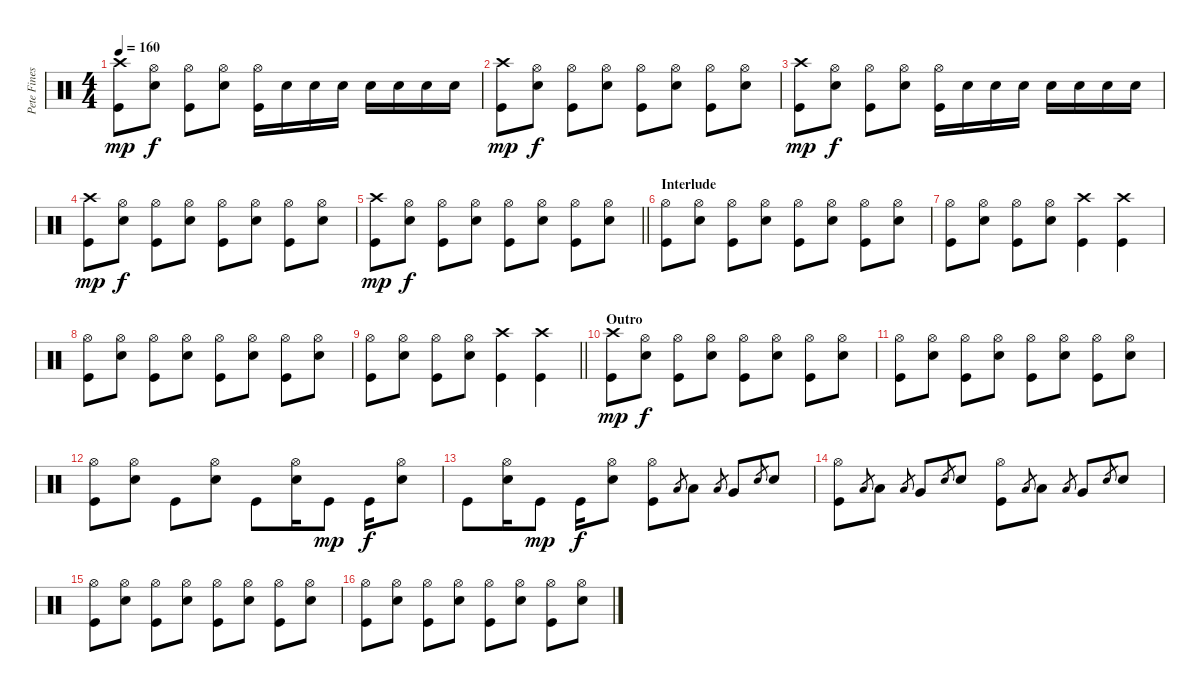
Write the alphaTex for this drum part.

\track ("Pete Finestone (Drums)" "Pete Fines") {instrument percussion}
\staff {score}
\articulation defaults
\ts (4 4)
\tempo 160
\clef neutral
\ks c
("Crash high (hit)" "Kick (hit)").8{dy mp} ("Hi-Hat (open)" "Snare (hit) 2").8{dy f} ("Hi-Hat (open)" "Kick (hit)").8 ("Hi-Hat (open)" "Snare (hit) 2").8 ("Hi-Hat (open)" "Kick (hit)").16 "Snare (hit) 2".16 "Snare (hit) 2".16 "Snare (hit) 2".16 "Snare (hit) 2".16 "Snare (hit) 2".16 "Snare (hit) 2".16 "Snare (hit) 2".16 |
("Crash high (hit)" "Kick (hit)").8{dy mp} ("Hi-Hat (open)" "Snare (hit) 2").8{dy f} ("Hi-Hat (open)" "Kick (hit)").8 ("Hi-Hat (open)" "Snare (hit) 2").8 ("Hi-Hat (open)" "Kick (hit)").8 ("Hi-Hat (open)" "Snare (hit) 2").8 ("Hi-Hat (open)" "Kick (hit)").8 ("Hi-Hat (open)" "Snare (hit) 2").8 |
("Crash high (hit)" "Kick (hit)").8{dy mp} ("Hi-Hat (open)" "Snare (hit) 2").8{dy f} ("Hi-Hat (open)" "Kick (hit)").8 ("Hi-Hat (open)" "Snare (hit) 2").8 ("Hi-Hat (open)" "Kick (hit)").16 "Snare (hit) 2".16 "Snare (hit) 2".16 "Snare (hit) 2".16 "Snare (hit) 2".16 "Snare (hit) 2".16 "Snare (hit) 2".16 "Snare (hit) 2".16 |
("Crash high (hit)" "Kick (hit)").8{dy mp} ("Hi-Hat (open)" "Snare (hit) 2").8{dy f} ("Hi-Hat (open)" "Kick (hit)").8 ("Hi-Hat (open)" "Snare (hit) 2").8 ("Hi-Hat (open)" "Kick (hit)").8 ("Hi-Hat (open)" "Snare (hit) 2").8 ("Hi-Hat (open)" "Kick (hit)").8 ("Hi-Hat (open)" "Snare (hit) 2").8 |
\barLineRight lightlight
("Crash high (hit)" "Kick (hit)").8{dy mp} ("Hi-Hat (open)" "Snare (hit) 2").8{dy f} ("Hi-Hat (open)" "Kick (hit)").8 ("Hi-Hat (open)" "Snare (hit) 2").8 ("Hi-Hat (open)" "Kick (hit)").8 ("Hi-Hat (open)" "Snare (hit) 2").8 ("Hi-Hat (open)" "Kick (hit)").8 ("Hi-Hat (open)" "Snare (hit) 2").8 |
\section ("" "Interlude")
("Hi-Hat (open)" "Kick (hit)").8 ("Hi-Hat (open)" "Snare (hit) 2").8 ("Hi-Hat (open)" "Kick (hit)").8 ("Hi-Hat (open)" "Snare (hit) 2").8 ("Hi-Hat (open)" "Kick (hit)").8 ("Hi-Hat (open)" "Snare (hit) 2").8 ("Hi-Hat (open)" "Kick (hit)").8 ("Hi-Hat (open)" "Snare (hit) 2").8 |
("Hi-Hat (open)" "Kick (hit)").8 ("Hi-Hat (open)" "Snare (hit) 2").8 ("Hi-Hat (open)" "Kick (hit)").8 ("Hi-Hat (open)" "Snare (hit) 2").8 ("Crash high (hit)" "Kick (hit)").4 ("Crash high (hit)" "Kick (hit)").4 |
("Hi-Hat (open)" "Kick (hit)").8 ("Hi-Hat (open)" "Snare (hit) 2").8 ("Hi-Hat (open)" "Kick (hit)").8 ("Hi-Hat (open)" "Snare (hit) 2").8 ("Hi-Hat (open)" "Kick (hit)").8 ("Hi-Hat (open)" "Snare (hit) 2").8 ("Hi-Hat (open)" "Kick (hit)").8 ("Hi-Hat (open)" "Snare (hit) 2").8 |
\barLineRight lightlight
("Hi-Hat (open)" "Kick (hit)").8 ("Hi-Hat (open)" "Snare (hit) 2").8 ("Hi-Hat (open)" "Kick (hit)").8 ("Hi-Hat (open)" "Snare (hit) 2").8 ("Crash high (hit)" "Kick (hit)").4 ("Crash high (hit)" "Kick (hit)").4 |
\section ("" "Outro")
("Crash high (hit)" "Kick (hit)").8{dy mp} ("Hi-Hat (open)" "Snare (hit) 2").8{dy f} ("Hi-Hat (open)" "Kick (hit)").8 ("Hi-Hat (open)" "Snare (hit) 2").8 ("Hi-Hat (open)" "Kick (hit)").8 ("Hi-Hat (open)" "Snare (hit) 2").8 ("Hi-Hat (open)" "Kick (hit)").8 ("Hi-Hat (open)" "Snare (hit) 2").8 |
("Hi-Hat (open)" "Kick (hit)").8 ("Hi-Hat (open)" "Snare (hit) 2").8 ("Hi-Hat (open)" "Kick (hit)").8 ("Hi-Hat (open)" "Snare (hit) 2").8 ("Hi-Hat (open)" "Kick (hit)").8 ("Hi-Hat (open)" "Snare (hit) 2").8 ("Hi-Hat (open)" "Kick (hit)").8 ("Hi-Hat (open)" "Snare (hit) 2").8 |
("Hi-Hat (open)" "Kick (hit)").8 ("Hi-Hat (open)" "Snare (hit) 2").8 "Kick (hit)".8 ("Hi-Hat (open)" "Snare (hit) 2").8 "Kick (hit)".8 ("Hi-Hat (open)" "Snare (hit) 2").16 "Kick (hit)".8{dy mp} "Kick (hit)".16{dy f} ("Hi-Hat (open)" "Snare (hit) 2").8 |
"Kick (hit)".8 ("Hi-Hat (open)" "Snare (hit) 2").16 "Kick (hit)".8{dy mp} "Kick (hit)".16{dy f} ("Hi-Hat (open)" "Snare (hit) 2").8 ("Hi-Hat (open)" "Kick (hit)").8 "Low Tom (hit)".8{gr} "Low Tom (hit)".8 "Low Tom (hit)".8{gr} "Very Low Tom (hit)".8 "Snare (hit) 2".8{gr} "Snare (hit) 2".8 |
("Hi-Hat (open)" "Kick (hit)").8 "Low Tom (hit)".8{gr} "Low Tom (hit)".8 "Low Tom (hit)".8{gr} "Very Low Tom (hit)".8 "Snare (hit) 2".8{gr} "Snare (hit) 2".8 ("Hi-Hat (open)" "Kick (hit)").8 "Low Tom (hit)".8{gr} "Low Tom (hit)".8 "Low Tom (hit)".8{gr} "Very Low Tom (hit)".8 "Snare (hit) 2".8{gr} "Snare (hit) 2".8 |
("Hi-Hat (open)" "Kick (hit)").8 ("Hi-Hat (open)" "Snare (hit) 2").8 ("Hi-Hat (open)" "Kick (hit)").8 ("Hi-Hat (open)" "Snare (hit) 2").8 ("Hi-Hat (open)" "Kick (hit)").8 ("Hi-Hat (open)" "Snare (hit) 2").8 ("Hi-Hat (open)" "Kick (hit)").8 ("Hi-Hat (open)" "Snare (hit) 2").8 |
("Hi-Hat (open)" "Kick (hit)").8 ("Hi-Hat (open)" "Snare (hit) 2").8 ("Hi-Hat (open)" "Kick (hit)").8 ("Hi-Hat (open)" "Snare (hit) 2").8 ("Hi-Hat (open)" "Kick (hit)").8 ("Hi-Hat (open)" "Snare (hit) 2").8 ("Hi-Hat (open)" "Kick (hit)").8 ("Hi-Hat (open)" "Snare (hit) 2").8
